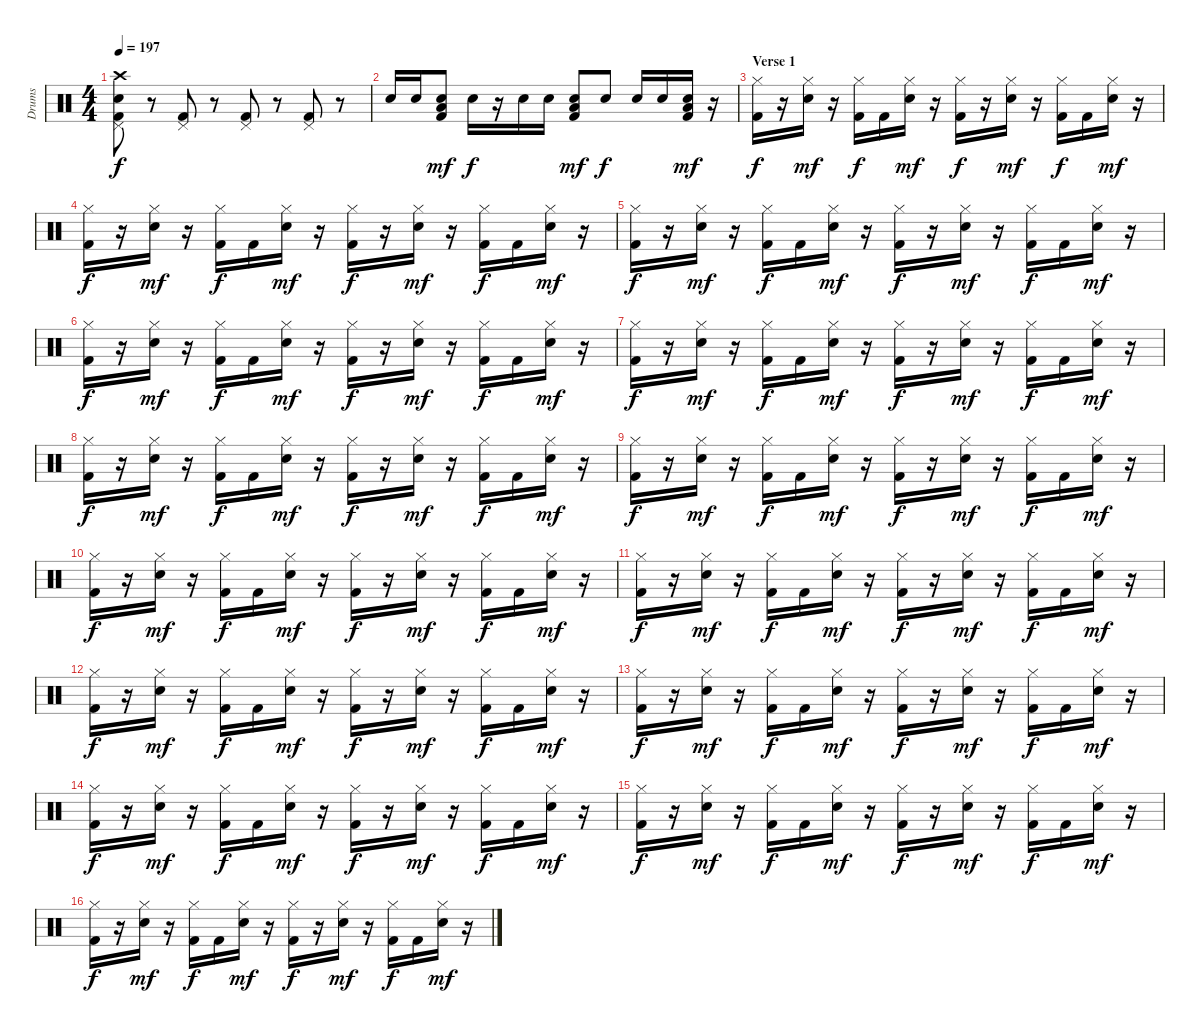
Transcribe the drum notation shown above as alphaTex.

\track ("Drums" "Drums") {instrument percussion}
\staff {score}
\articulation defaults
\ts (4 4)
\tempo 197
\clef neutral
\ks c
("Kick (hit) 2" "Snare (hit) 2" "Pedal Hi-Hat (hit)" "Crash high (hit)").8{dy f} r.8 ("Kick (hit) 2" "Pedal Hi-Hat (hit)").8 r.8 ("Kick (hit) 2" "Pedal Hi-Hat (hit)").8 r.8 ("Kick (hit) 2" "Pedal Hi-Hat (hit)").8 r.8 |
"Snare (hit) 2".16 "Snare (hit) 2".16 ("Kick (hit) 2" "Snare (hit) 2" "Low Floor Tom (hit)").8{dy mf} "Snare (hit) 2".16{dy f} r.16 "Snare (hit) 2".16 "Snare (hit) 2".16 ("Kick (hit) 2" "Snare (hit) 2" "Low Floor Tom (hit)").8{dy mf} "Snare (hit) 2".8{dy f} "Snare (hit) 2".16 "Snare (hit) 2".16 ("Kick (hit) 2" "Snare (hit) 2" "Low Floor Tom (hit)").16{dy mf} r.16 |
\section ("" "Verse 1")
("Kick (hit) 2" "Hi-Hat (closed)").16{dy f} r.16 ("Snare (hit) 2" "Hi-Hat (closed)").16{dy mf} r.16 ("Kick (hit) 2" "Hi-Hat (closed)").16{dy f} "Kick (hit) 2".16 ("Snare (hit) 2" "Hi-Hat (closed)").16{dy mf} r.16 ("Kick (hit) 2" "Hi-Hat (closed)").16{dy f} r.16 ("Snare (hit) 2" "Hi-Hat (closed)").16{dy mf} r.16 ("Kick (hit) 2" "Hi-Hat (closed)").16{dy f} "Kick (hit) 2".16 ("Snare (hit) 2" "Hi-Hat (closed)").16{dy mf} r.16 |
("Kick (hit) 2" "Hi-Hat (closed)").16{dy f} r.16 ("Snare (hit) 2" "Hi-Hat (closed)").16{dy mf} r.16 ("Kick (hit) 2" "Hi-Hat (closed)").16{dy f} "Kick (hit) 2".16 ("Snare (hit) 2" "Hi-Hat (closed)").16{dy mf} r.16 ("Kick (hit) 2" "Hi-Hat (closed)").16{dy f} r.16 ("Snare (hit) 2" "Hi-Hat (closed)").16{dy mf} r.16 ("Kick (hit) 2" "Hi-Hat (closed)").16{dy f} "Kick (hit) 2".16 ("Snare (hit) 2" "Hi-Hat (closed)").16{dy mf} r.16 |
("Kick (hit) 2" "Hi-Hat (closed)").16{dy f} r.16 ("Snare (hit) 2" "Hi-Hat (closed)").16{dy mf} r.16 ("Kick (hit) 2" "Hi-Hat (closed)").16{dy f} "Kick (hit) 2".16 ("Snare (hit) 2" "Hi-Hat (closed)").16{dy mf} r.16 ("Kick (hit) 2" "Hi-Hat (closed)").16{dy f} r.16 ("Snare (hit) 2" "Hi-Hat (closed)").16{dy mf} r.16 ("Kick (hit) 2" "Hi-Hat (closed)").16{dy f} "Kick (hit) 2".16 ("Snare (hit) 2" "Hi-Hat (closed)").16{dy mf} r.16 |
("Kick (hit) 2" "Hi-Hat (closed)").16{dy f} r.16 ("Snare (hit) 2" "Hi-Hat (closed)").16{dy mf} r.16 ("Kick (hit) 2" "Hi-Hat (closed)").16{dy f} "Kick (hit) 2".16 ("Snare (hit) 2" "Hi-Hat (closed)").16{dy mf} r.16 ("Kick (hit) 2" "Hi-Hat (closed)").16{dy f} r.16 ("Snare (hit) 2" "Hi-Hat (closed)").16{dy mf} r.16 ("Kick (hit) 2" "Hi-Hat (closed)").16{dy f} "Kick (hit) 2".16 ("Snare (hit) 2" "Hi-Hat (closed)").16{dy mf} r.16 |
("Kick (hit) 2" "Hi-Hat (closed)").16{dy f} r.16 ("Snare (hit) 2" "Hi-Hat (closed)").16{dy mf} r.16 ("Kick (hit) 2" "Hi-Hat (closed)").16{dy f} "Kick (hit) 2".16 ("Snare (hit) 2" "Hi-Hat (closed)").16{dy mf} r.16 ("Kick (hit) 2" "Hi-Hat (closed)").16{dy f} r.16 ("Snare (hit) 2" "Hi-Hat (closed)").16{dy mf} r.16 ("Kick (hit) 2" "Hi-Hat (closed)").16{dy f} "Kick (hit) 2".16 ("Snare (hit) 2" "Hi-Hat (closed)").16{dy mf} r.16 |
("Kick (hit) 2" "Hi-Hat (closed)").16{dy f} r.16 ("Snare (hit) 2" "Hi-Hat (closed)").16{dy mf} r.16 ("Kick (hit) 2" "Hi-Hat (closed)").16{dy f} "Kick (hit) 2".16 ("Snare (hit) 2" "Hi-Hat (closed)").16{dy mf} r.16 ("Kick (hit) 2" "Hi-Hat (closed)").16{dy f} r.16 ("Snare (hit) 2" "Hi-Hat (closed)").16{dy mf} r.16 ("Kick (hit) 2" "Hi-Hat (closed)").16{dy f} "Kick (hit) 2".16 ("Snare (hit) 2" "Hi-Hat (closed)").16{dy mf} r.16 |
("Kick (hit) 2" "Hi-Hat (closed)").16{dy f} r.16 ("Snare (hit) 2" "Hi-Hat (closed)").16{dy mf} r.16 ("Kick (hit) 2" "Hi-Hat (closed)").16{dy f} "Kick (hit) 2".16 ("Snare (hit) 2" "Hi-Hat (closed)").16{dy mf} r.16 ("Kick (hit) 2" "Hi-Hat (closed)").16{dy f} r.16 ("Snare (hit) 2" "Hi-Hat (closed)").16{dy mf} r.16 ("Kick (hit) 2" "Hi-Hat (closed)").16{dy f} "Kick (hit) 2".16 ("Snare (hit) 2" "Hi-Hat (closed)").16{dy mf} r.16 |
("Kick (hit) 2" "Hi-Hat (closed)").16{dy f} r.16 ("Snare (hit) 2" "Hi-Hat (closed)").16{dy mf} r.16 ("Kick (hit) 2" "Hi-Hat (closed)").16{dy f} "Kick (hit) 2".16 ("Snare (hit) 2" "Hi-Hat (closed)").16{dy mf} r.16 ("Kick (hit) 2" "Hi-Hat (closed)").16{dy f} r.16 ("Snare (hit) 2" "Hi-Hat (closed)").16{dy mf} r.16 ("Kick (hit) 2" "Hi-Hat (closed)").16{dy f} "Kick (hit) 2".16 ("Snare (hit) 2" "Hi-Hat (closed)").16{dy mf} r.16 |
("Kick (hit) 2" "Hi-Hat (closed)").16{dy f} r.16 ("Snare (hit) 2" "Hi-Hat (closed)").16{dy mf} r.16 ("Kick (hit) 2" "Hi-Hat (closed)").16{dy f} "Kick (hit) 2".16 ("Snare (hit) 2" "Hi-Hat (closed)").16{dy mf} r.16 ("Kick (hit) 2" "Hi-Hat (closed)").16{dy f} r.16 ("Snare (hit) 2" "Hi-Hat (closed)").16{dy mf} r.16 ("Kick (hit) 2" "Hi-Hat (closed)").16{dy f} "Kick (hit) 2".16 ("Snare (hit) 2" "Hi-Hat (closed)").16{dy mf} r.16 |
("Kick (hit) 2" "Hi-Hat (closed)").16{dy f} r.16 ("Snare (hit) 2" "Hi-Hat (closed)").16{dy mf} r.16 ("Kick (hit) 2" "Hi-Hat (closed)").16{dy f} "Kick (hit) 2".16 ("Snare (hit) 2" "Hi-Hat (closed)").16{dy mf} r.16 ("Kick (hit) 2" "Hi-Hat (closed)").16{dy f} r.16 ("Snare (hit) 2" "Hi-Hat (closed)").16{dy mf} r.16 ("Kick (hit) 2" "Hi-Hat (closed)").16{dy f} "Kick (hit) 2".16 ("Snare (hit) 2" "Hi-Hat (closed)").16{dy mf} r.16 |
("Kick (hit) 2" "Hi-Hat (closed)").16{dy f} r.16 ("Snare (hit) 2" "Hi-Hat (closed)").16{dy mf} r.16 ("Kick (hit) 2" "Hi-Hat (closed)").16{dy f} "Kick (hit) 2".16 ("Snare (hit) 2" "Hi-Hat (closed)").16{dy mf} r.16 ("Kick (hit) 2" "Hi-Hat (closed)").16{dy f} r.16 ("Snare (hit) 2" "Hi-Hat (closed)").16{dy mf} r.16 ("Kick (hit) 2" "Hi-Hat (closed)").16{dy f} "Kick (hit) 2".16 ("Snare (hit) 2" "Hi-Hat (closed)").16{dy mf} r.16 |
("Kick (hit) 2" "Hi-Hat (closed)").16{dy f} r.16 ("Snare (hit) 2" "Hi-Hat (closed)").16{dy mf} r.16 ("Kick (hit) 2" "Hi-Hat (closed)").16{dy f} "Kick (hit) 2".16 ("Snare (hit) 2" "Hi-Hat (closed)").16{dy mf} r.16 ("Kick (hit) 2" "Hi-Hat (closed)").16{dy f} r.16 ("Snare (hit) 2" "Hi-Hat (closed)").16{dy mf} r.16 ("Kick (hit) 2" "Hi-Hat (closed)").16{dy f} "Kick (hit) 2".16 ("Snare (hit) 2" "Hi-Hat (closed)").16{dy mf} r.16 |
("Kick (hit) 2" "Hi-Hat (closed)").16{dy f} r.16 ("Snare (hit) 2" "Hi-Hat (closed)").16{dy mf} r.16 ("Kick (hit) 2" "Hi-Hat (closed)").16{dy f} "Kick (hit) 2".16 ("Snare (hit) 2" "Hi-Hat (closed)").16{dy mf} r.16 ("Kick (hit) 2" "Hi-Hat (closed)").16{dy f} r.16 ("Snare (hit) 2" "Hi-Hat (closed)").16{dy mf} r.16 ("Kick (hit) 2" "Hi-Hat (closed)").16{dy f} "Kick (hit) 2".16 ("Snare (hit) 2" "Hi-Hat (closed)").16{dy mf} r.16 |
("Kick (hit) 2" "Hi-Hat (closed)").16{dy f} r.16 ("Snare (hit) 2" "Hi-Hat (closed)").16{dy mf} r.16 ("Kick (hit) 2" "Hi-Hat (closed)").16{dy f} "Kick (hit) 2".16 ("Snare (hit) 2" "Hi-Hat (closed)").16{dy mf} r.16 ("Kick (hit) 2" "Hi-Hat (closed)").16{dy f} r.16 ("Snare (hit) 2" "Hi-Hat (closed)").16{dy mf} r.16 ("Kick (hit) 2" "Hi-Hat (closed)").16{dy f} "Kick (hit) 2".16 ("Snare (hit) 2" "Hi-Hat (closed)").16{dy mf} r.16
